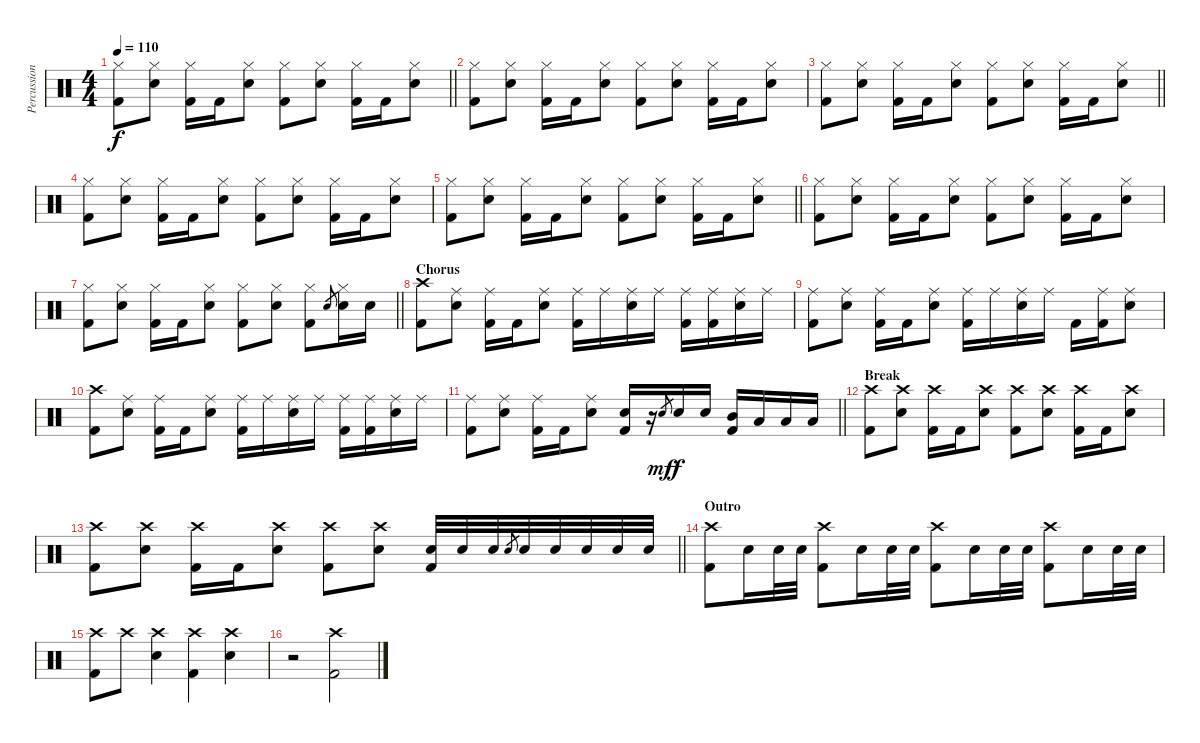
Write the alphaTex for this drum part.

\track ("Percussion" "Percussion") {instrument percussion}
\staff {score}
\articulation defaults
\ts (4 4)
\tempo 110
\clef neutral
\barLineRight lightlight
\ks c
("Hi-Hat (closed)" "Kick (hit) 2").8{dy f} ("Hi-Hat (closed)" "Electric Snare (hit)").8 ("Hi-Hat (closed)" "Kick (hit) 2").16 "Kick (hit) 2".16 ("Hi-Hat (closed)" "Electric Snare (hit)").8 ("Hi-Hat (closed)" "Kick (hit) 2").8 ("Hi-Hat (closed)" "Electric Snare (hit)").8 ("Hi-Hat (closed)" "Kick (hit) 2").16 "Kick (hit) 2".16 ("Hi-Hat (closed)" "Electric Snare (hit)").8 |
("Hi-Hat (closed)" "Kick (hit) 2").8 ("Hi-Hat (closed)" "Electric Snare (hit)").8 ("Hi-Hat (closed)" "Kick (hit) 2").16 "Kick (hit) 2".16 ("Hi-Hat (closed)" "Electric Snare (hit)").8 ("Hi-Hat (closed)" "Kick (hit) 2").8 ("Hi-Hat (closed)" "Electric Snare (hit)").8 ("Hi-Hat (closed)" "Kick (hit) 2").16 "Kick (hit) 2".16 ("Hi-Hat (closed)" "Electric Snare (hit)").8 |
\barLineRight lightlight
("Hi-Hat (closed)" "Kick (hit) 2").8 ("Hi-Hat (closed)" "Electric Snare (hit)").8 ("Hi-Hat (closed)" "Kick (hit) 2").16 "Kick (hit) 2".16 ("Hi-Hat (closed)" "Electric Snare (hit)").8 ("Hi-Hat (closed)" "Kick (hit) 2").8 ("Hi-Hat (closed)" "Electric Snare (hit)").8 ("Hi-Hat (closed)" "Kick (hit) 2").16 "Kick (hit) 2".16 ("Hi-Hat (closed)" "Electric Snare (hit)").8 |
("Hi-Hat (closed)" "Kick (hit) 2").8 ("Hi-Hat (closed)" "Electric Snare (hit)").8 ("Hi-Hat (closed)" "Kick (hit) 2").16 "Kick (hit) 2".16 ("Hi-Hat (closed)" "Electric Snare (hit)").8 ("Hi-Hat (closed)" "Kick (hit) 2").8 ("Hi-Hat (closed)" "Electric Snare (hit)").8 ("Hi-Hat (closed)" "Kick (hit) 2").16 "Kick (hit) 2".16 ("Hi-Hat (closed)" "Electric Snare (hit)").8 |
\barLineRight lightlight
("Hi-Hat (closed)" "Kick (hit) 2").8 ("Hi-Hat (closed)" "Electric Snare (hit)").8 ("Hi-Hat (closed)" "Kick (hit) 2").16 "Kick (hit) 2".16 ("Hi-Hat (closed)" "Electric Snare (hit)").8 ("Hi-Hat (closed)" "Kick (hit) 2").8 ("Hi-Hat (closed)" "Electric Snare (hit)").8 ("Hi-Hat (closed)" "Kick (hit) 2").16 "Kick (hit) 2".16 ("Hi-Hat (closed)" "Electric Snare (hit)").8 |
("Hi-Hat (closed)" "Kick (hit) 2").8 ("Hi-Hat (closed)" "Electric Snare (hit)").8 ("Hi-Hat (closed)" "Kick (hit) 2").16 "Kick (hit) 2".16 ("Hi-Hat (closed)" "Electric Snare (hit)").8 ("Hi-Hat (closed)" "Kick (hit) 2").8 ("Hi-Hat (closed)" "Electric Snare (hit)").8 ("Hi-Hat (closed)" "Kick (hit) 2").16 "Kick (hit) 2".16 ("Hi-Hat (closed)" "Electric Snare (hit)").8 |
\barLineRight lightlight
("Hi-Hat (closed)" "Kick (hit) 2").8 ("Hi-Hat (closed)" "Electric Snare (hit)").8 ("Hi-Hat (closed)" "Kick (hit) 2").16 "Kick (hit) 2".16 ("Hi-Hat (closed)" "Electric Snare (hit)").8 ("Hi-Hat (closed)" "Kick (hit) 2").8 ("Hi-Hat (closed)" "Electric Snare (hit)").8 ("Hi-Hat (closed)" "Kick (hit) 2").8 "Electric Snare (hit)".8{gr} ("Hi-Hat (closed)" "Electric Snare (hit)").16 "Electric Snare (hit)".16 |
\section ("" "Chorus")
("Crash high (hit)" "Kick (hit) 2").8 ("Ride (middle)" "Electric Snare (hit)").8 ("Ride (middle)" "Kick (hit) 2").16 "Kick (hit) 2".16 ("Ride (middle)" "Electric Snare (hit)").8 ("Ride (middle)" "Kick (hit) 2").16 "Ride (middle)".16 ("Ride (middle)" "Electric Snare (hit)").16 "Ride (middle)".16 ("Ride (middle)" "Kick (hit) 2").16 ("Ride (middle)" "Kick (hit) 2").16 ("Ride (middle)" "Electric Snare (hit)").16 "Ride (middle)".16 |
("Ride (middle)" "Kick (hit) 2").8 ("Ride (middle)" "Electric Snare (hit)").8 ("Ride (middle)" "Kick (hit) 2").16 "Kick (hit) 2".16 ("Ride (middle)" "Electric Snare (hit)").8 ("Ride (middle)" "Kick (hit) 2").16 "Ride (middle)".16 ("Ride (middle)" "Electric Snare (hit)").16 "Ride (middle)".16 "Kick (hit) 2".16 ("Ride (middle)" "Kick (hit) 2").16 ("Ride (middle)" "Electric Snare (hit)").8 |
("Crash high (hit)" "Kick (hit) 2").8 ("Ride (middle)" "Electric Snare (hit)").8 ("Ride (middle)" "Kick (hit) 2").16 "Kick (hit) 2".16 ("Ride (middle)" "Electric Snare (hit)").8 ("Ride (middle)" "Kick (hit) 2").16 "Ride (middle)".16 ("Ride (middle)" "Electric Snare (hit)").16 "Ride (middle)".16 ("Ride (middle)" "Kick (hit) 2").16 ("Ride (middle)" "Kick (hit) 2").16 ("Ride (middle)" "Electric Snare (hit)").16 "Ride (middle)".16 |
\barLineRight lightlight
("Ride (middle)" "Kick (hit) 2").8 ("Ride (middle)" "Electric Snare (hit)").8 ("Ride (middle)" "Kick (hit) 2").16 "Kick (hit) 2".16 ("Ride (middle)" "Electric Snare (hit)").8 ("Electric Snare (hit)" "Kick (hit) 2").16 r.16 "Electric Snare (hit)".8{gr dy mf} "Electric Snare (hit)".16{dy f} "Electric Snare (hit)".16 ("Mid Tom (hit)" "Kick (hit) 2").16 "Low Tom (hit)".16 "Low Tom (hit)".16 "Low Floor Tom (hit)".16 |
\section ("" "Break")
("Crash high (hit)" "Kick (hit) 2").8 ("Crash high (hit)" "Electric Snare (hit)").8 ("Crash high (hit)" "Kick (hit) 2").16 "Kick (hit) 2".16 ("Crash high (hit)" "Electric Snare (hit)").8 ("Crash high (hit)" "Kick (hit) 2").8 ("Crash high (hit)" "Electric Snare (hit)").8 ("Crash high (hit)" "Kick (hit) 2").16 "Kick (hit) 2".16 ("Crash high (hit)" "Electric Snare (hit)").8 |
\barLineRight lightlight
("Crash high (hit)" "Kick (hit) 2").8 ("Crash high (hit)" "Electric Snare (hit)").8 ("Crash high (hit)" "Kick (hit) 2").16 "Kick (hit) 2".16 ("Crash high (hit)" "Electric Snare (hit)").8 ("Crash high (hit)" "Kick (hit) 2").8 ("Crash high (hit)" "Electric Snare (hit)").8 ("Electric Snare (hit)" "Kick (hit) 2").32 "Electric Snare (hit)".32 "Electric Snare (hit)".32 "Electric Snare (hit)".8{gr} "Electric Snare (hit)".32 "Electric Snare (hit)".32 "Electric Snare (hit)".32 "Electric Snare (hit)".32 "Electric Snare (hit)".32 |
\section ("" "Outro")
("Crash high (hit)" "Kick (hit) 2").8 "Electric Snare (hit)".16 "Electric Snare (hit)".32 "Electric Snare (hit)".32 ("Crash high (hit)" "Kick (hit) 2").8 "Electric Snare (hit)".16 "Electric Snare (hit)".32 "Electric Snare (hit)".32 ("Crash high (hit)" "Kick (hit) 2").8 "Electric Snare (hit)".16 "Electric Snare (hit)".32 "Electric Snare (hit)".32 ("Crash high (hit)" "Kick (hit) 2").8 "Electric Snare (hit)".16 "Electric Snare (hit)".32 "Electric Snare (hit)".32 |
("Crash high (hit)" "Kick (hit) 2").8 "Crash high (hit)".8 ("Crash high (hit)" "Electric Snare (hit)").4 ("Crash high (hit)" "Kick (hit) 2").4 ("Crash high (hit)" "Electric Snare (hit)").4 |
r.2 ("Crash high (hit)" "Kick (hit) 2").2
